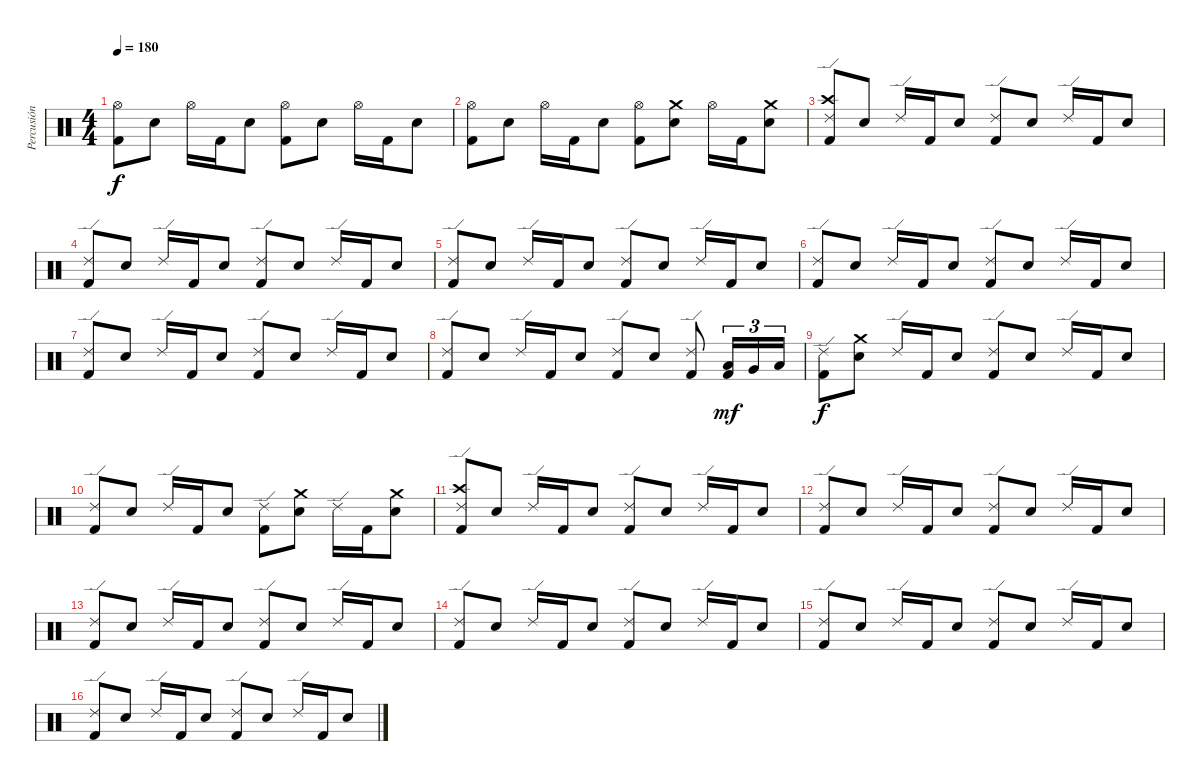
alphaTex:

\track ("Percusión" "Percusión") {instrument percussion}
\staff {score}
\articulation defaults
\ts (4 4)
\tempo 180
\clef neutral
\ks c
("Hi-Hat (open)" "Kick (hit) 2").8{dy f} "Electric Snare (hit)".8 "Hi-Hat (open)".16 "Kick (hit) 2".16 "Electric Snare (hit)".8 ("Hi-Hat (open)" "Kick (hit) 2").8 "Electric Snare (hit)".8 "Hi-Hat (open)".16 "Kick (hit) 2".16 "Electric Snare (hit)".8 |
("Hi-Hat (open)" "Kick (hit) 2").8 "Electric Snare (hit)".8 "Hi-Hat (open)".16 "Kick (hit) 2".16 "Electric Snare (hit)".8 ("Hi-Hat (open)" "Kick (hit) 2").8 ("Crash medium (hit)" "Electric Snare (hit)").8 "Hi-Hat (open)".16 "Kick (hit) 2".16 ("Crash medium (hit)" "Electric Snare (hit)").8 |
("Crash high (hit)" "Ride (edge) 2" "Kick (hit) 2").8 "Electric Snare (hit)".8 "Ride (edge) 2".16 "Kick (hit) 2".16 "Electric Snare (hit)".8 ("Ride (edge) 2" "Kick (hit) 2").8 "Electric Snare (hit)".8 "Ride (edge) 2".16 "Kick (hit) 2".16 "Electric Snare (hit)".8 |
("Ride (edge) 2" "Kick (hit) 2").8 "Electric Snare (hit)".8 "Ride (edge) 2".16 "Kick (hit) 2".16 "Electric Snare (hit)".8 ("Ride (edge) 2" "Kick (hit) 2").8 "Electric Snare (hit)".8 "Ride (edge) 2".16 "Kick (hit) 2".16 "Electric Snare (hit)".8 |
("Ride (edge) 2" "Kick (hit) 2").8 "Electric Snare (hit)".8 "Ride (edge) 2".16 "Kick (hit) 2".16 "Electric Snare (hit)".8 ("Ride (edge) 2" "Kick (hit) 2").8 "Electric Snare (hit)".8 "Ride (edge) 2".16 "Kick (hit) 2".16 "Electric Snare (hit)".8 |
("Ride (edge) 2" "Kick (hit) 2").8 "Electric Snare (hit)".8 "Ride (edge) 2".16 "Kick (hit) 2".16 "Electric Snare (hit)".8 ("Ride (edge) 2" "Kick (hit) 2").8 "Electric Snare (hit)".8 "Ride (edge) 2".16 "Kick (hit) 2".16 "Electric Snare (hit)".8 |
("Ride (edge) 2" "Kick (hit) 2").8 "Electric Snare (hit)".8 "Ride (edge) 2".16 "Kick (hit) 2".16 "Electric Snare (hit)".8 ("Ride (edge) 2" "Kick (hit) 2").8 "Electric Snare (hit)".8 "Ride (edge) 2".16 "Kick (hit) 2".16 "Electric Snare (hit)".8 |
("Ride (edge) 2" "Kick (hit) 2").8 "Electric Snare (hit)".8 "Ride (edge) 2".16 "Kick (hit) 2".16 "Electric Snare (hit)".8 ("Ride (edge) 2" "Kick (hit) 2").8 "Electric Snare (hit)".8 ("Ride (edge) 2" "Kick (hit) 2").8 ("Low Tom (hit)" "Kick (hit) 2").16{tu (3 2) dy mf} "Very Low Tom (hit)".16{tu (3 2)} "Low Floor Tom (hit)".16{tu (3 2)} |
("Ride (edge) 2" "Kick (hit) 2").8{dy f} ("Crash medium (hit)" "Electric Snare (hit)").8 "Ride (edge) 2".16 "Kick (hit) 2".16 "Electric Snare (hit)".8 ("Ride (edge) 2" "Kick (hit) 2").8 "Electric Snare (hit)".8 "Ride (edge) 2".16 "Kick (hit) 2".16 "Electric Snare (hit)".8 |
("Ride (edge) 2" "Kick (hit) 2").8 "Electric Snare (hit)".8 "Ride (edge) 2".16 "Kick (hit) 2".16 "Electric Snare (hit)".8 ("Ride (edge) 2" "Kick (hit) 2").8 ("Crash medium (hit)" "Electric Snare (hit)").8 "Ride (edge) 2".16 "Kick (hit) 2".16 ("Crash medium (hit)" "Electric Snare (hit)").8 |
("Crash high (hit)" "Ride (edge) 2" "Kick (hit) 2").8 "Electric Snare (hit)".8 "Ride (edge) 2".16 "Kick (hit) 2".16 "Electric Snare (hit)".8 ("Ride (edge) 2" "Kick (hit) 2").8 "Electric Snare (hit)".8 "Ride (edge) 2".16 "Kick (hit) 2".16 "Electric Snare (hit)".8 |
("Ride (edge) 2" "Kick (hit) 2").8 "Electric Snare (hit)".8 "Ride (edge) 2".16 "Kick (hit) 2".16 "Electric Snare (hit)".8 ("Ride (edge) 2" "Kick (hit) 2").8 "Electric Snare (hit)".8 "Ride (edge) 2".16 "Kick (hit) 2".16 "Electric Snare (hit)".8 |
("Ride (edge) 2" "Kick (hit) 2").8 "Electric Snare (hit)".8 "Ride (edge) 2".16 "Kick (hit) 2".16 "Electric Snare (hit)".8 ("Ride (edge) 2" "Kick (hit) 2").8 "Electric Snare (hit)".8 "Ride (edge) 2".16 "Kick (hit) 2".16 "Electric Snare (hit)".8 |
("Ride (edge) 2" "Kick (hit) 2").8 "Electric Snare (hit)".8 "Ride (edge) 2".16 "Kick (hit) 2".16 "Electric Snare (hit)".8 ("Ride (edge) 2" "Kick (hit) 2").8 "Electric Snare (hit)".8 "Ride (edge) 2".16 "Kick (hit) 2".16 "Electric Snare (hit)".8 |
("Ride (edge) 2" "Kick (hit) 2").8 "Electric Snare (hit)".8 "Ride (edge) 2".16 "Kick (hit) 2".16 "Electric Snare (hit)".8 ("Ride (edge) 2" "Kick (hit) 2").8 "Electric Snare (hit)".8 "Ride (edge) 2".16 "Kick (hit) 2".16 "Electric Snare (hit)".8 |
("Ride (edge) 2" "Kick (hit) 2").8 "Electric Snare (hit)".8 "Ride (edge) 2".16 "Kick (hit) 2".16 "Electric Snare (hit)".8 ("Ride (edge) 2" "Kick (hit) 2").8 "Electric Snare (hit)".8 "Ride (edge) 2".16 "Kick (hit) 2".16 "Electric Snare (hit)".8
